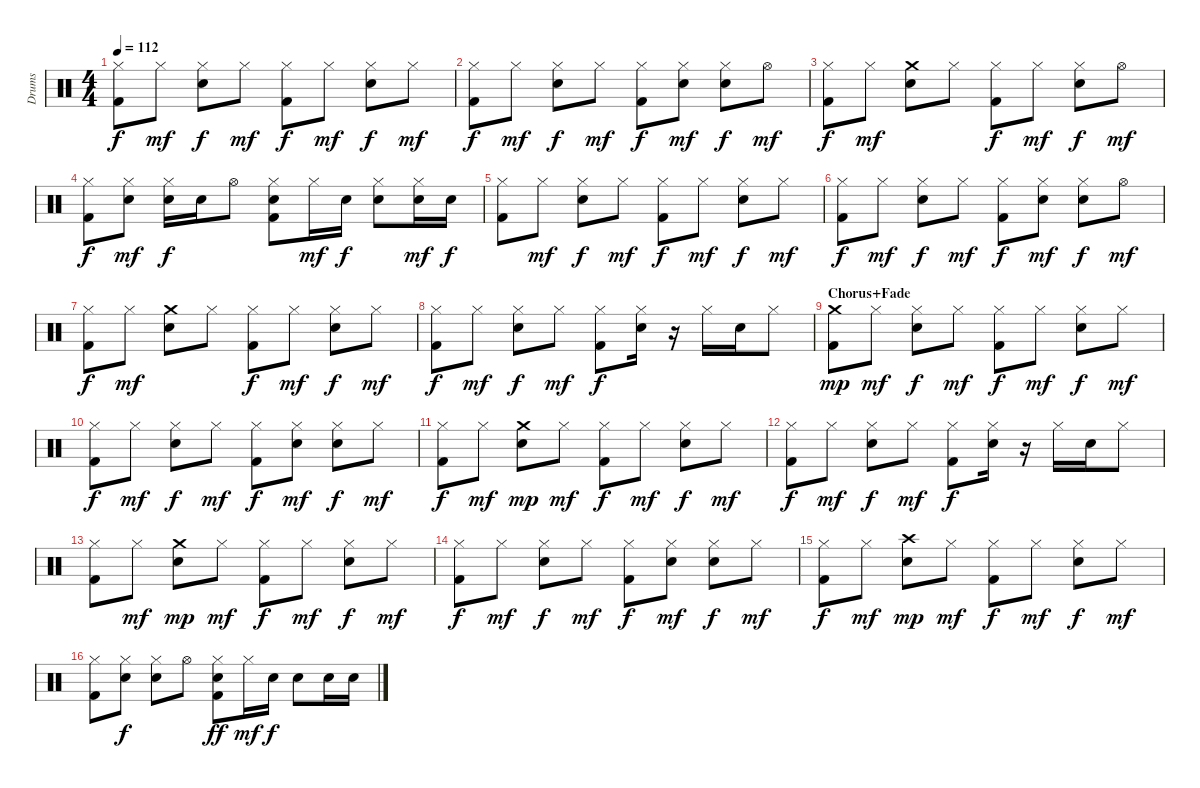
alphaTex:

\track ("Drums" "Drums") {instrument percussion}
\staff {score}
\articulation defaults
\ts (4 4)
\tempo 112
\clef neutral
\ks c
("Hi-Hat (closed)" "Kick (hit) 2").8{dy f} "Hi-Hat (closed)".8{dy mf} ("Hi-Hat (closed)" "Snare (hit) 2").8{dy f} "Hi-Hat (closed)".8{dy mf} ("Hi-Hat (closed)" "Kick (hit) 2").8{dy f} "Hi-Hat (closed)".8{dy mf} ("Hi-Hat (closed)" "Snare (hit) 2").8{dy f} "Hi-Hat (closed)".8{dy mf} |
("Hi-Hat (closed)" "Kick (hit) 2").8{dy f} "Hi-Hat (closed)".8{dy mf} ("Hi-Hat (closed)" "Snare (hit) 2").8{dy f} "Hi-Hat (closed)".8{dy mf} ("Hi-Hat (closed)" "Kick (hit) 2").8{dy f} ("Hi-Hat (closed)" "Snare (hit) 2").8{dy mf} ("Hi-Hat (closed)" "Snare (hit) 2").8{dy f} "Hi-Hat (open)".8{dy mf} |
("Hi-Hat (closed)" "Kick (hit) 2").8{dy f} "Hi-Hat (closed)".8{dy mf} ("Crash medium (hit)" "Snare (hit) 2").8 "Hi-Hat (closed)".8 ("Hi-Hat (closed)" "Kick (hit) 2").8{dy f} "Hi-Hat (closed)".8{dy mf} ("Hi-Hat (closed)" "Snare (hit) 2").8{dy f} "Hi-Hat (open)".8{dy mf} |
("Hi-Hat (closed)" "Kick (hit) 2").8{dy f} ("Hi-Hat (closed)" "Snare (hit) 2").8{dy mf} ("Hi-Hat (closed)" "Snare (hit) 2").16{dy f} "Snare (hit) 2".16 "Hi-Hat (open)".8 ("Hi-Hat (closed)" "Snare (hit) 2" "Kick (hit) 2").8 "Hi-Hat (closed)".16{dy mf} "Snare (hit) 2".16{dy f} ("Hi-Hat (closed)" "Snare (hit) 2").8 ("Hi-Hat (closed)" "Snare (hit) 2").16{dy mf} "Snare (hit) 2".16{dy f} |
("Hi-Hat (closed)" "Kick (hit) 2").8 "Hi-Hat (closed)".8{dy mf} ("Hi-Hat (closed)" "Snare (hit) 2").8{dy f} "Hi-Hat (closed)".8{dy mf} ("Hi-Hat (closed)" "Kick (hit) 2").8{dy f} "Hi-Hat (closed)".8{dy mf} ("Hi-Hat (closed)" "Snare (hit) 2").8{dy f} "Hi-Hat (closed)".8{dy mf} |
("Hi-Hat (closed)" "Kick (hit) 2").8{dy f} "Hi-Hat (closed)".8{dy mf} ("Hi-Hat (closed)" "Snare (hit) 2").8{dy f} "Hi-Hat (closed)".8{dy mf} ("Hi-Hat (closed)" "Kick (hit) 2").8{dy f} ("Hi-Hat (closed)" "Snare (hit) 2").8{dy mf} ("Hi-Hat (closed)" "Snare (hit) 2").8{dy f} "Hi-Hat (open)".8{dy mf} |
("Hi-Hat (closed)" "Kick (hit) 2").8{dy f} "Hi-Hat (closed)".8{dy mf} ("Crash medium (hit)" "Snare (hit) 2").8 "Hi-Hat (closed)".8 ("Hi-Hat (closed)" "Kick (hit) 2").8{dy f} "Hi-Hat (closed)".8{dy mf} ("Hi-Hat (closed)" "Snare (hit) 2").8{dy f} "Hi-Hat (closed)".8{dy mf} |
("Hi-Hat (closed)" "Kick (hit) 2").8{dy f} "Hi-Hat (closed)".8{dy mf} ("Hi-Hat (closed)" "Snare (hit) 2").8{dy f} "Hi-Hat (closed)".8{dy mf} ("Hi-Hat (closed)" "Kick (hit) 2").8{dy f} ("Hi-Hat (closed)" "Snare (hit) 2").16 r.16 "Hi-Hat (closed)".16 "Snare (hit) 2".16 "Hi-Hat (closed)".8 |
\section ("" "Chorus+Fade")
("Crash medium (hit)" "Kick (hit) 2").8{dy mp} "Hi-Hat (closed)".8{dy mf} ("Hi-Hat (closed)" "Snare (hit) 2").8{dy f} "Hi-Hat (closed)".8{dy mf} ("Hi-Hat (closed)" "Kick (hit) 2").8{dy f} "Hi-Hat (closed)".8{dy mf} ("Hi-Hat (closed)" "Snare (hit) 2").8{dy f} "Hi-Hat (closed)".8{dy mf} |
("Hi-Hat (closed)" "Kick (hit) 2").8{dy f} "Hi-Hat (closed)".8{dy mf} ("Hi-Hat (closed)" "Snare (hit) 2").8{dy f} "Hi-Hat (closed)".8{dy mf} ("Hi-Hat (closed)" "Kick (hit) 2").8{dy f} ("Hi-Hat (closed)" "Snare (hit) 2").8{dy mf} ("Hi-Hat (closed)" "Snare (hit) 2").8{dy f} "Hi-Hat (closed)".8{dy mf} |
("Hi-Hat (closed)" "Kick (hit) 2").8{dy f} "Hi-Hat (closed)".8{dy mf} ("Crash medium (hit)" "Snare (hit) 2").8{dy mp} "Hi-Hat (closed)".8{dy mf} ("Hi-Hat (closed)" "Kick (hit) 2").8{dy f} "Hi-Hat (closed)".8{dy mf} ("Hi-Hat (closed)" "Snare (hit) 2").8{dy f} "Hi-Hat (closed)".8{dy mf} |
("Hi-Hat (closed)" "Kick (hit) 2").8{dy f} "Hi-Hat (closed)".8{dy mf} ("Hi-Hat (closed)" "Snare (hit) 2").8{dy f} "Hi-Hat (closed)".8{dy mf} ("Hi-Hat (closed)" "Kick (hit) 2").8{dy f} ("Hi-Hat (closed)" "Snare (hit) 2").16 r.16 "Hi-Hat (closed)".16 "Snare (hit) 2".16 "Hi-Hat (closed)".8 |
("Hi-Hat (closed)" "Kick (hit) 2").8 "Hi-Hat (closed)".8{dy mf} ("Crash medium (hit)" "Snare (hit) 2").8{dy mp} "Hi-Hat (closed)".8{dy mf} ("Hi-Hat (closed)" "Kick (hit) 2").8{dy f} "Hi-Hat (closed)".8{dy mf} ("Hi-Hat (closed)" "Snare (hit) 2").8{dy f} "Hi-Hat (closed)".8{dy mf} |
("Hi-Hat (closed)" "Kick (hit) 2").8{dy f} "Hi-Hat (closed)".8{dy mf} ("Hi-Hat (closed)" "Snare (hit) 2").8{dy f} "Hi-Hat (closed)".8{dy mf} ("Hi-Hat (closed)" "Kick (hit) 2").8{dy f} ("Hi-Hat (closed)" "Snare (hit) 2").8{dy mf} ("Hi-Hat (closed)" "Snare (hit) 2").8{dy f} "Hi-Hat (closed)".8{dy mf} |
("Hi-Hat (closed)" "Kick (hit) 2").8{dy f} "Hi-Hat (closed)".8{dy mf} ("Crash high (hit)" "Snare (hit) 2").8{dy mp} "Hi-Hat (closed)".8{dy mf} ("Hi-Hat (closed)" "Kick (hit) 2").8{dy f} "Hi-Hat (closed)".8{dy mf} ("Hi-Hat (closed)" "Snare (hit) 2").8{dy f} "Hi-Hat (closed)".8{dy mf} |
("Hi-Hat (closed)" "Kick (hit) 2").8 ("Hi-Hat (closed)" "Snare (hit) 2").8{dy f} ("Hi-Hat (closed)" "Snare (hit) 2").8 "Hi-Hat (open)".8 ("Hi-Hat (closed)" "Snare (hit) 2" "Kick (hit) 2").8{dy ff} "Hi-Hat (closed)".16{dy mf} "Snare (hit) 2".16{dy f} "Snare (hit) 2".8 "Snare (hit) 2".16 "Snare (hit) 2".16
